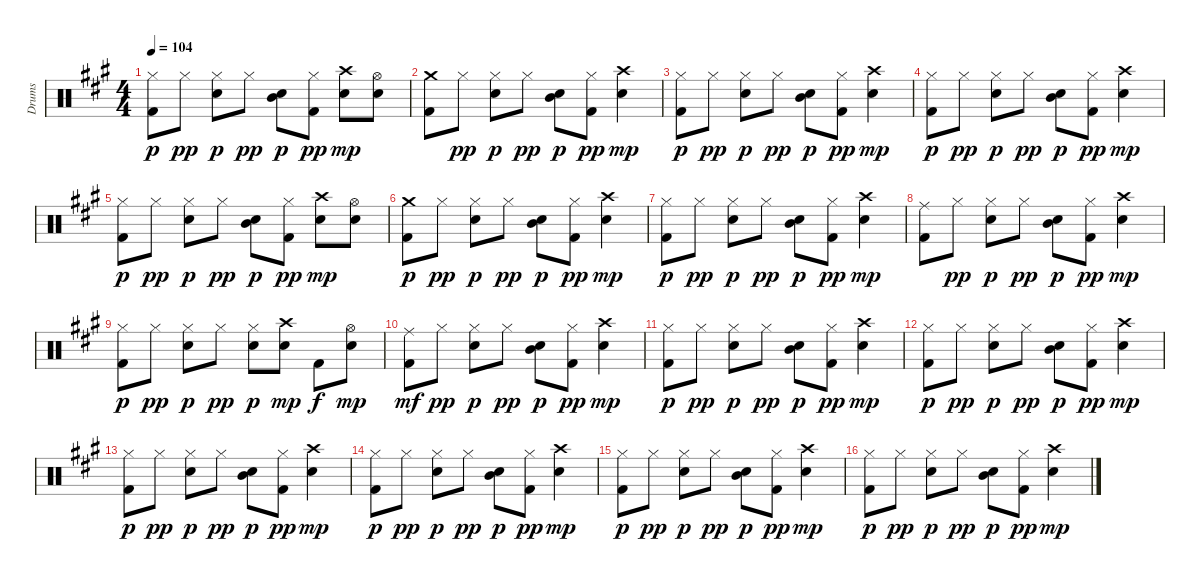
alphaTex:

\track ("Drums" "Drums") {instrument percussion}
\staff {score}
\articulation defaults
\ts (4 4)
\tempo 104
\clef neutral
\ks a
("Kick (hit) 2" "Hi-Hat (closed)").8{dy p} "Hi-Hat (closed)".8{dy pp} ("Electric Snare (hit)" "Hi-Hat (closed)").8{dy p} "Hi-Hat (closed)".8{dy pp} ("Electric Snare (hit)" "Mid Tom (hit)").8{dy p} ("Kick (hit) 2" "Hi-Hat (closed)").8{dy pp} ("Electric Snare (hit)" "Crash high (hit)").8{dy mp} ("Electric Snare (hit)" "Hi-Hat (open)").8 |
("Kick (hit) 2" "Crash medium (hit)").8 "Hi-Hat (closed)".8{dy pp} ("Electric Snare (hit)" "Hi-Hat (closed)").8{dy p} "Hi-Hat (closed)".8{dy pp} ("Electric Snare (hit)" "Mid Tom (hit)").8{dy p} ("Kick (hit) 2" "Hi-Hat (closed)").8{dy pp} ("Electric Snare (hit)" "Crash high (hit)").4{dy mp} |
("Kick (hit) 2" "Hi-Hat (closed)").8{dy p} "Hi-Hat (closed)".8{dy pp} ("Electric Snare (hit)" "Hi-Hat (closed)").8{dy p} "Hi-Hat (closed)".8{dy pp} ("Electric Snare (hit)" "Mid Tom (hit)").8{dy p} ("Kick (hit) 2" "Hi-Hat (closed)").8{dy pp} ("Electric Snare (hit)" "Crash high (hit)").4{dy mp} |
("Kick (hit) 2" "Hi-Hat (closed)").8{dy p} "Hi-Hat (closed)".8{dy pp} ("Electric Snare (hit)" "Hi-Hat (closed)").8{dy p} "Hi-Hat (closed)".8{dy pp} ("Electric Snare (hit)" "Mid Tom (hit)").8{dy p} ("Kick (hit) 2" "Hi-Hat (closed)").8{dy pp} ("Electric Snare (hit)" "Crash high (hit)").4{dy mp} |
("Kick (hit) 2" "Hi-Hat (closed)").8{dy p} "Hi-Hat (closed)".8{dy pp} ("Electric Snare (hit)" "Hi-Hat (closed)").8{dy p} "Hi-Hat (closed)".8{dy pp} ("Electric Snare (hit)" "Mid Tom (hit)").8{dy p} ("Kick (hit) 2" "Hi-Hat (closed)").8{dy pp} ("Electric Snare (hit)" "Crash high (hit)").8{dy mp} ("Electric Snare (hit)" "Hi-Hat (open)").8 |
("Kick (hit) 2" "Crash medium (hit)").8{dy p} "Hi-Hat (closed)".8{dy pp} ("Electric Snare (hit)" "Hi-Hat (closed)").8{dy p} "Hi-Hat (closed)".8{dy pp} ("Electric Snare (hit)" "Mid Tom (hit)").8{dy p} ("Kick (hit) 2" "Hi-Hat (closed)").8{dy pp} ("Electric Snare (hit)" "Crash high (hit)").4{dy mp} |
("Kick (hit) 2" "Hi-Hat (closed)").8{dy p} "Hi-Hat (closed)".8{dy pp} ("Electric Snare (hit)" "Hi-Hat (closed)").8{dy p} "Hi-Hat (closed)".8{dy pp} ("Electric Snare (hit)" "Mid Tom (hit)").8{dy p} ("Kick (hit) 2" "Hi-Hat (closed)").8{dy pp} ("Electric Snare (hit)" "Crash high (hit)").4{dy mp} |
("Kick (hit) 2" "Ride (middle)").8 "Hi-Hat (closed)".8{dy pp} ("Electric Snare (hit)" "Hi-Hat (closed)").8{dy p} "Hi-Hat (closed)".8{dy pp} ("Electric Snare (hit)" "Mid Tom (hit)").8{dy p} ("Kick (hit) 2" "Hi-Hat (closed)").8{dy pp} ("Electric Snare (hit)" "Crash high (hit)").4{dy mp} |
("Kick (hit) 2" "Hi-Hat (closed)").8{dy p} "Hi-Hat (closed)".8{dy pp} ("Electric Snare (hit)" "Hi-Hat (closed)").8{dy p} "Hi-Hat (closed)".8{dy pp} ("Electric Snare (hit)" "Hi-Hat (closed)").8{dy p} ("Electric Snare (hit)" "Crash high (hit)").8{dy mp} "Kick (hit) 2".8{dy f} ("Electric Snare (hit)" "Hi-Hat (open)").8{dy mp} |
("Kick (hit) 2" "Ride (middle)").8{dy mf} "Hi-Hat (closed)".8{dy pp} ("Electric Snare (hit)" "Hi-Hat (closed)").8{dy p} "Hi-Hat (closed)".8{dy pp} ("Electric Snare (hit)" "Mid Tom (hit)").8{dy p} ("Kick (hit) 2" "Hi-Hat (closed)").8{dy pp} ("Electric Snare (hit)" "Crash high (hit)").4{dy mp} |
("Kick (hit) 2" "Hi-Hat (closed)").8{dy p} "Hi-Hat (closed)".8{dy pp} ("Electric Snare (hit)" "Hi-Hat (closed)").8{dy p} "Hi-Hat (closed)".8{dy pp} ("Electric Snare (hit)" "Mid Tom (hit)").8{dy p} ("Kick (hit) 2" "Hi-Hat (closed)").8{dy pp} ("Electric Snare (hit)" "Crash high (hit)").4{dy mp} |
("Kick (hit) 2" "Hi-Hat (closed)").8{dy p} "Hi-Hat (closed)".8{dy pp} ("Electric Snare (hit)" "Hi-Hat (closed)").8{dy p} "Hi-Hat (closed)".8{dy pp} ("Electric Snare (hit)" "Mid Tom (hit)").8{dy p} ("Kick (hit) 2" "Hi-Hat (closed)").8{dy pp} ("Electric Snare (hit)" "Crash high (hit)").4{dy mp} |
("Kick (hit) 2" "Hi-Hat (closed)").8{dy p volume 6} "Hi-Hat (closed)".8{dy pp} ("Electric Snare (hit)" "Hi-Hat (closed)").8{dy p} "Hi-Hat (closed)".8{dy pp} ("Electric Snare (hit)" "Mid Tom (hit)").8{dy p} ("Kick (hit) 2" "Hi-Hat (closed)").8{dy pp} ("Electric Snare (hit)" "Crash high (hit)").4{dy mp} |
("Kick (hit) 2" "Hi-Hat (closed)").8{dy p} "Hi-Hat (closed)".8{dy pp} ("Electric Snare (hit)" "Hi-Hat (closed)").8{dy p} "Hi-Hat (closed)".8{dy pp} ("Electric Snare (hit)" "Mid Tom (hit)").8{dy p} ("Kick (hit) 2" "Hi-Hat (closed)").8{dy pp} ("Electric Snare (hit)" "Crash high (hit)").4{dy mp} |
("Kick (hit) 2" "Hi-Hat (closed)").8{dy p} "Hi-Hat (closed)".8{dy pp} ("Electric Snare (hit)" "Hi-Hat (closed)").8{dy p} "Hi-Hat (closed)".8{dy pp} ("Electric Snare (hit)" "Mid Tom (hit)").8{dy p} ("Kick (hit) 2" "Hi-Hat (closed)").8{dy pp} ("Electric Snare (hit)" "Crash high (hit)").4{dy mp} |
("Kick (hit) 2" "Hi-Hat (closed)").8{dy p} "Hi-Hat (closed)".8{dy pp} ("Electric Snare (hit)" "Hi-Hat (closed)").8{dy p volume 4} "Hi-Hat (closed)".8{dy pp} ("Electric Snare (hit)" "Mid Tom (hit)").8{dy p} ("Kick (hit) 2" "Hi-Hat (closed)").8{dy pp} ("Electric Snare (hit)" "Crash high (hit)").4{dy mp}
